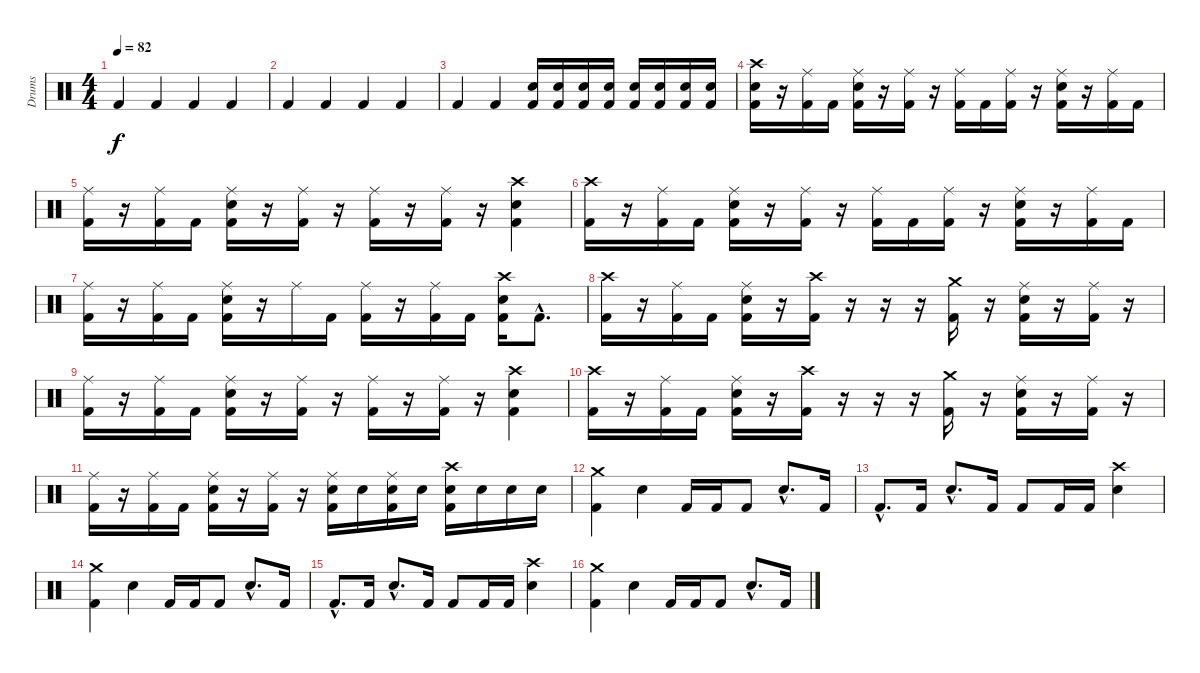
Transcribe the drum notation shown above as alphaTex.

\track ("Drums" "Drums") {instrument percussion}
\staff {score}
\articulation defaults
\ts (4 4)
\tempo 82
\clef neutral
\ks c "Kick (hit) 2".4{dy f} "Kick (hit) 2".4 "Kick (hit) 2".4 "Kick (hit) 2".4
|
"Kick (hit) 2".4 "Kick (hit) 2".4 "Kick (hit) 2".4 "Kick (hit) 2".4 |
"Kick (hit) 2".4{volume 7} "Kick (hit) 2".4{volume 14} ("Electric Snare (hit)" "Kick (hit) 2").16 ("Electric Snare (hit)" "Kick (hit) 2").16 ("Electric Snare (hit)" "Kick (hit) 2").16 ("Electric Snare (hit)" "Kick (hit) 2").16 ("Electric Snare (hit)" "Kick (hit) 2").16 ("Electric Snare (hit)" "Kick (hit) 2").16 ("Electric Snare (hit)" "Kick (hit) 2").16 ("Electric Snare (hit)" "Kick (hit) 2").16 |
("Crash high (hit)" "Electric Snare (hit)" "Kick (hit) 2").16 r.16 ("Ride (middle)" "Kick (hit) 2").16 "Kick (hit) 2".16 ("Ride (middle)" "Electric Snare (hit)" "Kick (hit) 2").16 r.16 ("Ride (middle)" "Kick (hit) 2").16 r.16 ("Ride (middle)" "Kick (hit) 2").16 "Kick (hit) 2".16 ("Ride (middle)" "Kick (hit) 2").16 r.16 ("Ride (middle)" "Electric Snare (hit)" "Kick (hit) 2").16 r.16 ("Ride (middle)" "Kick (hit) 2").16 "Kick (hit) 2".16 |
("Ride (middle)" "Kick (hit) 2").16 r.16 ("Ride (middle)" "Kick (hit) 2").16 "Kick (hit) 2".16 ("Ride (middle)" "Electric Snare (hit)" "Kick (hit) 2").16 r.16 ("Ride (middle)" "Kick (hit) 2").16 r.16 ("Ride (middle)" "Kick (hit) 2").16 r.16 ("Ride (middle)" "Kick (hit) 2").16 r.16 ("Crash high (hit)" "Electric Snare (hit)" "Kick (hit) 2").4 |
("Crash high (hit)" "Kick (hit) 2").16 r.16 ("Ride (middle)" "Kick (hit) 2").16 "Kick (hit) 2".16 ("Ride (middle)" "Electric Snare (hit)" "Kick (hit) 2").16 r.16 ("Ride (middle)" "Kick (hit) 2").16 r.16 ("Ride (middle)" "Kick (hit) 2").16 "Kick (hit) 2".16 ("Ride (middle)" "Kick (hit) 2").16 r.16 ("Ride (middle)" "Electric Snare (hit)" "Kick (hit) 2").16 r.16 ("Ride (middle)" "Kick (hit) 2").16 "Kick (hit) 2".16 |
("Ride (middle)" "Kick (hit) 2").16 r.16 ("Ride (middle)" "Kick (hit) 2").16 "Kick (hit) 2".16 ("Ride (middle)" "Electric Snare (hit)" "Kick (hit) 2").16 r.16 "Ride (middle)".16 "Kick (hit) 2".16 ("Ride (middle)" "Kick (hit) 2").16 r.16 ("Ride (middle)" "Kick (hit) 2").16 "Kick (hit) 2".16 ("Crash high (hit)" "Electric Snare (hit)" "Kick (hit) 2").16 "Kick (hit) 2"{hac}.8{d} |
("Crash high (hit)" "Kick (hit) 2").16 r.16 ("Ride (middle)" "Kick (hit) 2").16 "Kick (hit) 2".16 ("Ride (middle)" "Electric Snare (hit)" "Kick (hit) 2").16 r.16 ("Crash high (hit)" "Kick (hit) 2").16 r.16 r.16 r.16 ("Crash medium (hit)" "Kick (hit) 2").16 r.16 ("Ride (middle)" "Electric Snare (hit)" "Kick (hit) 2").16 r.16 ("Ride (middle)" "Kick (hit) 2").16 r.16 |
("Ride (middle)" "Kick (hit) 2").16 r.16 ("Ride (middle)" "Kick (hit) 2").16 "Kick (hit) 2".16 ("Ride (middle)" "Electric Snare (hit)" "Kick (hit) 2").16 r.16 ("Ride (middle)" "Kick (hit) 2").16 r.16 ("Ride (middle)" "Kick (hit) 2").16 r.16 ("Ride (middle)" "Kick (hit) 2").16 r.16 ("Crash high (hit)" "Electric Snare (hit)" "Kick (hit) 2").4 |
("Crash high (hit)" "Kick (hit) 2").16 r.16 ("Ride (middle)" "Kick (hit) 2").16 "Kick (hit) 2".16 ("Ride (middle)" "Electric Snare (hit)" "Kick (hit) 2").16 r.16 ("Crash high (hit)" "Kick (hit) 2").16 r.16 r.16 r.16 ("Crash medium (hit)" "Kick (hit) 2").16 r.16 ("Ride (middle)" "Electric Snare (hit)" "Kick (hit) 2").16 r.16 ("Ride (middle)" "Kick (hit) 2").16 r.16 |
("Ride (middle)" "Kick (hit) 2").16 r.16 ("Ride (middle)" "Kick (hit) 2").16 "Kick (hit) 2".16 ("Ride (middle)" "Electric Snare (hit)" "Kick (hit) 2").16 r.16 ("Ride (middle)" "Kick (hit) 2").16 r.16 ("Ride (middle)" "Electric Snare (hit)" "Kick (hit) 2").16 "Electric Snare (hit)".16 ("Ride (middle)" "Electric Snare (hit)" "Kick (hit) 2").16 "Electric Snare (hit)".16 ("Crash high (hit)" "Electric Snare (hit)" "Kick (hit) 2").16 "Electric Snare (hit)".16 "Electric Snare (hit)".16 "Electric Snare (hit)".16 |
("Crash medium (hit)" "Kick (hit) 2").4 "Electric Snare (hit)".4 "Kick (hit) 2".16 "Kick (hit) 2".16 "Kick (hit) 2".8 "Electric Snare (hit)"{hac}.8{d} "Kick (hit) 2".16 |
"Kick (hit) 2"{hac}.8{d} "Kick (hit) 2".16 "Electric Snare (hit)"{hac}.8{d} "Kick (hit) 2".16 "Kick (hit) 2".8 "Kick (hit) 2".16 "Kick (hit) 2".16 ("Crash high (hit)" "Electric Snare (hit)").4 |
("Crash medium (hit)" "Kick (hit) 2").4 "Electric Snare (hit)".4 "Kick (hit) 2".16 "Kick (hit) 2".16 "Kick (hit) 2".8 "Electric Snare (hit)"{hac}.8{d} "Kick (hit) 2".16 |
"Kick (hit) 2"{hac}.8{d} "Kick (hit) 2".16 "Electric Snare (hit)"{hac}.8{d} "Kick (hit) 2".16 "Kick (hit) 2".8 "Kick (hit) 2".16 "Kick (hit) 2".16 ("Crash high (hit)" "Electric Snare (hit)").4 |
("Crash medium (hit)" "Kick (hit) 2").4 "Electric Snare (hit)".4 "Kick (hit) 2".16 "Kick (hit) 2".16 "Kick (hit) 2".8 "Electric Snare (hit)"{hac}.8{d} "Kick (hit) 2".16
